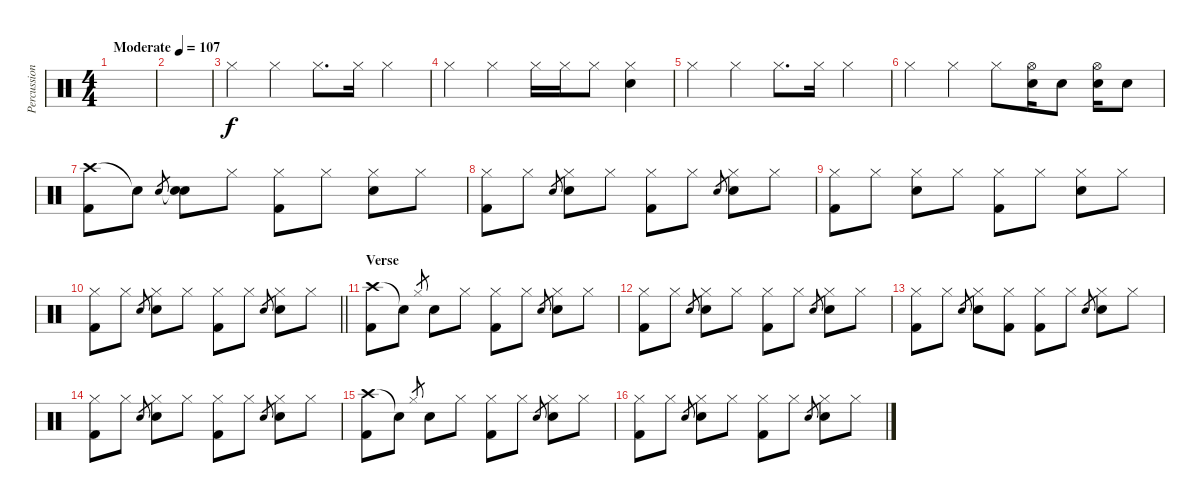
\track ("Percussion" "Percussion") {instrument percussion}
\staff {score}
\articulation defaults
\ts (4 4)
\tempo (107 "Moderate")
\clef neutral
\ks c
|
|
"Hi-Hat (closed)".4 "Hi-Hat (closed)".4 "Hi-Hat (closed)".8{d} "Hi-Hat (closed)".16 "Hi-Hat (closed)".4 |
"Hi-Hat (closed)".4 "Hi-Hat (closed)".4 "Hi-Hat (closed)".16 "Hi-Hat (closed)".16 "Hi-Hat (closed)".8 ("Hi-Hat (closed)" "Electric Snare (hit)").4 |
"Hi-Hat (closed)".4 "Hi-Hat (closed)".4 "Hi-Hat (closed)".8{d} "Hi-Hat (closed)".16 "Hi-Hat (closed)".4 |
"Hi-Hat (closed)".4 "Hi-Hat (closed)".4 "Hi-Hat (closed)".8 ("Hi-Hat (open)" "Electric Snare (hit)").16 "Electric Snare (hit)".8 ("Hi-Hat (open)" "Electric Snare (hit)").16 "Electric Snare (hit)".8 |
("Crash high (hit)" "Kick (hit) 2").8 "Snare (hit)"{t}.8 "Electric Snare (hit)".8{gr} ("Snare (hit)"{t} "Electric Snare (hit)").8 "Hi-Hat (closed)".8 ("Hi-Hat (closed)" "Kick (hit) 2").8 "Hi-Hat (closed)".8 ("Hi-Hat (closed)" "Electric Snare (hit)").8 "Hi-Hat (closed)".8 |
("Hi-Hat (closed)" "Kick (hit) 2").8 "Hi-Hat (closed)".8 "Electric Snare (hit)".8{gr} ("Hi-Hat (closed)" "Electric Snare (hit)").8 "Hi-Hat (closed)".8 ("Hi-Hat (closed)" "Kick (hit) 2").8 "Hi-Hat (closed)".8 "Electric Snare (hit)".8{gr} ("Hi-Hat (closed)" "Electric Snare (hit)").8 "Hi-Hat (closed)".8 |
("Hi-Hat (closed)" "Kick (hit) 2").8 "Hi-Hat (closed)".8 ("Hi-Hat (closed)" "Electric Snare (hit)").8 "Hi-Hat (closed)".8 ("Hi-Hat (closed)" "Kick (hit) 2").8 "Hi-Hat (closed)".8 ("Hi-Hat (closed)" "Electric Snare (hit)").8 "Hi-Hat (closed)".8 |
\barLineRight lightlight
("Hi-Hat (closed)" "Kick (hit) 2").8 "Hi-Hat (closed)".8 "Electric Snare (hit)".8{gr} ("Hi-Hat (closed)" "Electric Snare (hit)").8 "Hi-Hat (closed)".8 ("Hi-Hat (closed)" "Kick (hit) 2").8 "Hi-Hat (closed)".8 "Electric Snare (hit)".8{gr} ("Hi-Hat (closed)" "Electric Snare (hit)").8 "Hi-Hat (closed)".8 |
\section ("" "Verse")
("Crash high (hit)" "Kick (hit) 2").8 "Snare (hit)"{t}.8 "Hi-Hat (closed)".8{gr} "Electric Snare (hit)".8 "Hi-Hat (closed)".8 ("Hi-Hat (closed)" "Kick (hit) 2").8 "Hi-Hat (closed)".8 "Electric Snare (hit)".8{gr} ("Hi-Hat (closed)" "Electric Snare (hit)").8 "Hi-Hat (closed)".8 |
("Hi-Hat (closed)" "Kick (hit) 2").8 "Hi-Hat (closed)".8 "Electric Snare (hit)".8{gr} ("Hi-Hat (closed)" "Electric Snare (hit)").8 "Hi-Hat (closed)".8 ("Hi-Hat (closed)" "Kick (hit) 2").8 "Hi-Hat (closed)".8 "Electric Snare (hit)".8{gr} ("Hi-Hat (closed)" "Electric Snare (hit)").8 "Hi-Hat (closed)".8 |
("Hi-Hat (closed)" "Kick (hit) 2").8 "Hi-Hat (closed)".8 "Electric Snare (hit)".8{gr} ("Hi-Hat (closed)" "Electric Snare (hit)").8 ("Hi-Hat (closed)" "Kick (hit) 2").8 ("Hi-Hat (closed)" "Kick (hit) 2").8 "Hi-Hat (closed)".8 "Electric Snare (hit)".8{gr} ("Hi-Hat (closed)" "Electric Snare (hit)").8 "Hi-Hat (closed)".8 |
("Hi-Hat (closed)" "Kick (hit) 2").8 "Hi-Hat (closed)".8 "Electric Snare (hit)".8{gr} ("Hi-Hat (closed)" "Electric Snare (hit)").8 "Hi-Hat (closed)".8 ("Hi-Hat (closed)" "Kick (hit) 2").8 "Hi-Hat (closed)".8 "Electric Snare (hit)".8{gr} ("Hi-Hat (closed)" "Electric Snare (hit)").8 "Hi-Hat (closed)".8 |
("Crash high (hit)" "Kick (hit) 2").8 "Snare (hit)"{t}.8 "Hi-Hat (closed)".8{gr} "Electric Snare (hit)".8 "Hi-Hat (closed)".8 ("Hi-Hat (closed)" "Kick (hit) 2").8 "Hi-Hat (closed)".8 "Electric Snare (hit)".8{gr} ("Hi-Hat (closed)" "Electric Snare (hit)").8 "Hi-Hat (closed)".8 |
("Hi-Hat (closed)" "Kick (hit) 2").8 "Hi-Hat (closed)".8 "Electric Snare (hit)".8{gr} ("Hi-Hat (closed)" "Electric Snare (hit)").8 "Hi-Hat (closed)".8 ("Hi-Hat (closed)" "Kick (hit) 2").8 "Hi-Hat (closed)".8 "Electric Snare (hit)".8{gr} ("Hi-Hat (closed)" "Electric Snare (hit)").8 "Hi-Hat (closed)".8
